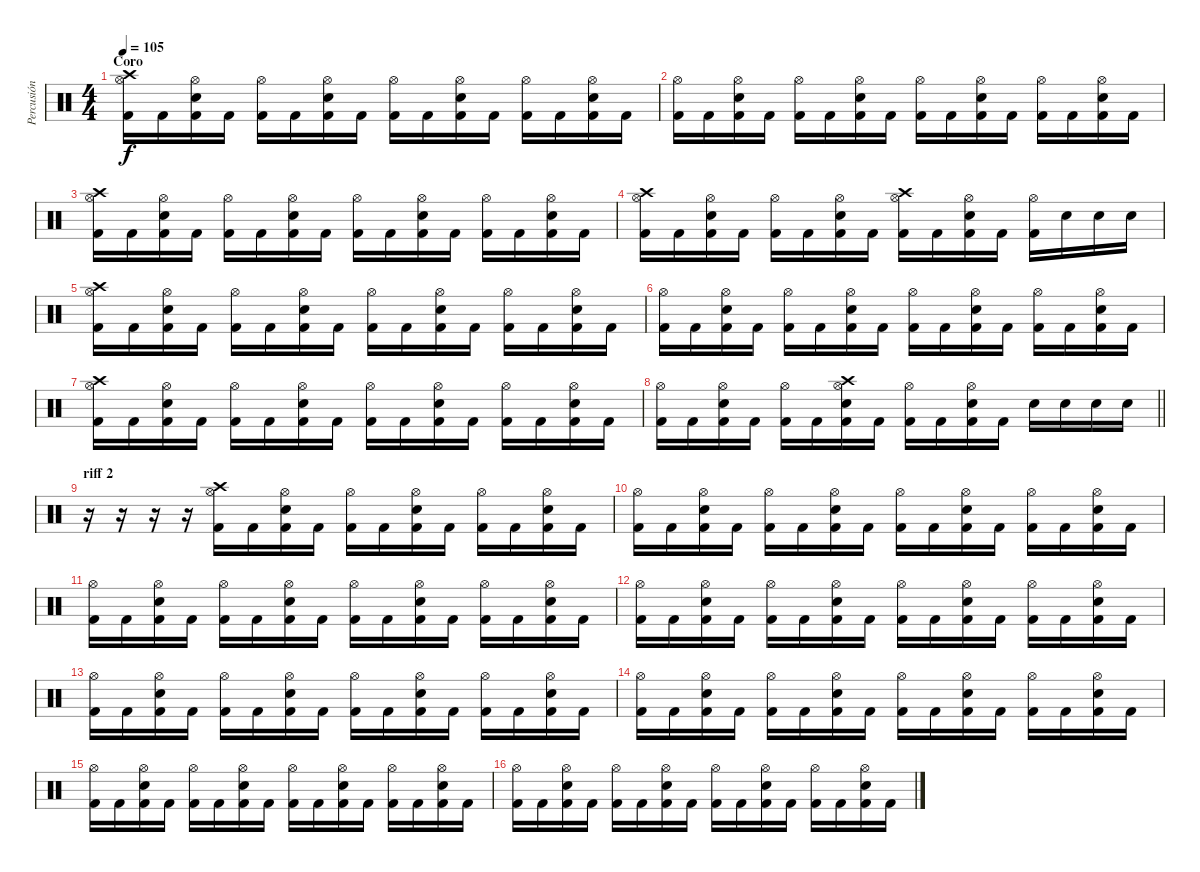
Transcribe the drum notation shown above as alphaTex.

\track ("Percusión" "Percusión") {instrument percussion}
\staff {score}
\articulation defaults
\ts (4 4)
\section ("" "Coro")
\tempo 105
\clef neutral
\ks c
("Crash high (hit)" "Hi-Hat (open)" "Kick (hit) 2").16{dy f} "Kick (hit) 2".16 ("Hi-Hat (open)" "Snare (hit) 2" "Kick (hit) 2").16 "Kick (hit) 2".16 ("Hi-Hat (open)" "Kick (hit) 2").16 "Kick (hit) 2".16 ("Hi-Hat (open)" "Snare (hit) 2" "Kick (hit) 2").16 "Kick (hit) 2".16 ("Hi-Hat (open)" "Kick (hit) 2").16 "Kick (hit) 2".16 ("Hi-Hat (open)" "Snare (hit) 2" "Kick (hit) 2").16 "Kick (hit) 2".16 ("Hi-Hat (open)" "Kick (hit) 2").16 "Kick (hit) 2".16 ("Hi-Hat (open)" "Snare (hit) 2" "Kick (hit) 2").16 "Kick (hit) 2".16 |
("Hi-Hat (open)" "Kick (hit) 2").16 "Kick (hit) 2".16 ("Hi-Hat (open)" "Snare (hit) 2" "Kick (hit) 2").16 "Kick (hit) 2".16 ("Hi-Hat (open)" "Kick (hit) 2").16 "Kick (hit) 2".16 ("Hi-Hat (open)" "Snare (hit) 2" "Kick (hit) 2").16 "Kick (hit) 2".16 ("Hi-Hat (open)" "Kick (hit) 2").16 "Kick (hit) 2".16 ("Hi-Hat (open)" "Snare (hit) 2" "Kick (hit) 2").16 "Kick (hit) 2".16 ("Hi-Hat (open)" "Kick (hit) 2").16 "Kick (hit) 2".16 ("Hi-Hat (open)" "Snare (hit) 2" "Kick (hit) 2").16 "Kick (hit) 2".16 |
("Crash high (hit)" "Hi-Hat (open)" "Kick (hit) 2").16 "Kick (hit) 2".16 ("Hi-Hat (open)" "Snare (hit) 2" "Kick (hit) 2").16 "Kick (hit) 2".16 ("Hi-Hat (open)" "Kick (hit) 2").16 "Kick (hit) 2".16 ("Hi-Hat (open)" "Snare (hit) 2" "Kick (hit) 2").16 "Kick (hit) 2".16 ("Hi-Hat (open)" "Kick (hit) 2").16 "Kick (hit) 2".16 ("Hi-Hat (open)" "Snare (hit) 2" "Kick (hit) 2").16 "Kick (hit) 2".16 ("Hi-Hat (open)" "Kick (hit) 2").16 "Kick (hit) 2".16 ("Hi-Hat (open)" "Snare (hit) 2" "Kick (hit) 2").16 "Kick (hit) 2".16 |
("Crash high (hit)" "Hi-Hat (open)" "Kick (hit) 2").16 "Kick (hit) 2".16 ("Hi-Hat (open)" "Snare (hit) 2" "Kick (hit) 2").16 "Kick (hit) 2".16 ("Hi-Hat (open)" "Kick (hit) 2").16 "Kick (hit) 2".16 ("Hi-Hat (open)" "Snare (hit) 2" "Kick (hit) 2").16 "Kick (hit) 2".16 ("Crash high (hit)" "Hi-Hat (open)" "Kick (hit) 2").16 "Kick (hit) 2".16 ("Hi-Hat (open)" "Snare (hit) 2" "Kick (hit) 2").16 "Kick (hit) 2".16 ("Hi-Hat (open)" "Kick (hit) 2").16 "Snare (hit) 2".16 "Snare (hit) 2".16 "Snare (hit) 2".16 |
("Crash high (hit)" "Hi-Hat (open)" "Kick (hit) 2").16 "Kick (hit) 2".16 ("Hi-Hat (open)" "Snare (hit) 2" "Kick (hit) 2").16 "Kick (hit) 2".16 ("Hi-Hat (open)" "Kick (hit) 2").16 "Kick (hit) 2".16 ("Hi-Hat (open)" "Snare (hit) 2" "Kick (hit) 2").16 "Kick (hit) 2".16 ("Hi-Hat (open)" "Kick (hit) 2").16 "Kick (hit) 2".16 ("Hi-Hat (open)" "Snare (hit) 2" "Kick (hit) 2").16 "Kick (hit) 2".16 ("Hi-Hat (open)" "Kick (hit) 2").16 "Kick (hit) 2".16 ("Hi-Hat (open)" "Snare (hit) 2" "Kick (hit) 2").16 "Kick (hit) 2".16 |
("Hi-Hat (open)" "Kick (hit) 2").16 "Kick (hit) 2".16 ("Hi-Hat (open)" "Snare (hit) 2" "Kick (hit) 2").16 "Kick (hit) 2".16 ("Hi-Hat (open)" "Kick (hit) 2").16 "Kick (hit) 2".16 ("Hi-Hat (open)" "Snare (hit) 2" "Kick (hit) 2").16 "Kick (hit) 2".16 ("Hi-Hat (open)" "Kick (hit) 2").16 "Kick (hit) 2".16 ("Hi-Hat (open)" "Snare (hit) 2" "Kick (hit) 2").16 "Kick (hit) 2".16 ("Hi-Hat (open)" "Kick (hit) 2").16 "Kick (hit) 2".16 ("Hi-Hat (open)" "Snare (hit) 2" "Kick (hit) 2").16 "Kick (hit) 2".16 |
("Crash high (hit)" "Hi-Hat (open)" "Kick (hit) 2").16 "Kick (hit) 2".16 ("Hi-Hat (open)" "Snare (hit) 2" "Kick (hit) 2").16 "Kick (hit) 2".16 ("Hi-Hat (open)" "Kick (hit) 2").16 "Kick (hit) 2".16 ("Hi-Hat (open)" "Snare (hit) 2" "Kick (hit) 2").16 "Kick (hit) 2".16 ("Hi-Hat (open)" "Kick (hit) 2").16 "Kick (hit) 2".16 ("Hi-Hat (open)" "Snare (hit) 2" "Kick (hit) 2").16 "Kick (hit) 2".16 ("Hi-Hat (open)" "Kick (hit) 2").16 "Kick (hit) 2".16 ("Hi-Hat (open)" "Snare (hit) 2" "Kick (hit) 2").16 "Kick (hit) 2".16 |
\barLineRight lightlight
("Hi-Hat (open)" "Kick (hit) 2").16 "Kick (hit) 2".16 ("Hi-Hat (open)" "Snare (hit) 2" "Kick (hit) 2").16 "Kick (hit) 2".16 ("Hi-Hat (open)" "Kick (hit) 2").16 "Kick (hit) 2".16 ("Crash high (hit)" "Hi-Hat (open)" "Snare (hit) 2" "Kick (hit) 2").16 "Kick (hit) 2".16 ("Hi-Hat (open)" "Kick (hit) 2").16 "Kick (hit) 2".16 ("Hi-Hat (open)" "Snare (hit) 2" "Kick (hit) 2").16 "Kick (hit) 2".16 "Snare (hit) 2".16 "Snare (hit) 2".16 "Snare (hit) 2".16 "Snare (hit) 2".16 |
\section ("" "riff 2")
r.16 r.16 r.16 r.16 ("Crash high (hit)" "Hi-Hat (open)" "Kick (hit) 2").16 "Kick (hit) 2".16 ("Hi-Hat (open)" "Snare (hit) 2" "Kick (hit) 2").16 "Kick (hit) 2".16 ("Hi-Hat (open)" "Kick (hit) 2").16 "Kick (hit) 2".16 ("Hi-Hat (open)" "Snare (hit) 2" "Kick (hit) 2").16 "Kick (hit) 2".16 ("Hi-Hat (open)" "Kick (hit) 2").16 "Kick (hit) 2".16 ("Hi-Hat (open)" "Snare (hit) 2" "Kick (hit) 2").16 "Kick (hit) 2".16 |
("Hi-Hat (open)" "Kick (hit) 2").16 "Kick (hit) 2".16 ("Hi-Hat (open)" "Snare (hit) 2" "Kick (hit) 2").16 "Kick (hit) 2".16 ("Hi-Hat (open)" "Kick (hit) 2").16 "Kick (hit) 2".16 ("Hi-Hat (open)" "Snare (hit) 2" "Kick (hit) 2").16 "Kick (hit) 2".16 ("Hi-Hat (open)" "Kick (hit) 2").16 "Kick (hit) 2".16 ("Hi-Hat (open)" "Snare (hit) 2" "Kick (hit) 2").16 "Kick (hit) 2".16 ("Hi-Hat (open)" "Kick (hit) 2").16 "Kick (hit) 2".16 ("Hi-Hat (open)" "Snare (hit) 2" "Kick (hit) 2").16 "Kick (hit) 2".16 |
("Hi-Hat (open)" "Kick (hit) 2").16 "Kick (hit) 2".16 ("Hi-Hat (open)" "Snare (hit) 2" "Kick (hit) 2").16 "Kick (hit) 2".16 ("Hi-Hat (open)" "Kick (hit) 2").16 "Kick (hit) 2".16 ("Hi-Hat (open)" "Snare (hit) 2" "Kick (hit) 2").16 "Kick (hit) 2".16 ("Hi-Hat (open)" "Kick (hit) 2").16 "Kick (hit) 2".16 ("Hi-Hat (open)" "Snare (hit) 2" "Kick (hit) 2").16 "Kick (hit) 2".16 ("Hi-Hat (open)" "Kick (hit) 2").16 "Kick (hit) 2".16 ("Hi-Hat (open)" "Snare (hit) 2" "Kick (hit) 2").16 "Kick (hit) 2".16 |
("Hi-Hat (open)" "Kick (hit) 2").16 "Kick (hit) 2".16 ("Hi-Hat (open)" "Snare (hit) 2" "Kick (hit) 2").16 "Kick (hit) 2".16 ("Hi-Hat (open)" "Kick (hit) 2").16 "Kick (hit) 2".16 ("Hi-Hat (open)" "Snare (hit) 2" "Kick (hit) 2").16 "Kick (hit) 2".16 ("Hi-Hat (open)" "Kick (hit) 2").16 "Kick (hit) 2".16 ("Hi-Hat (open)" "Snare (hit) 2" "Kick (hit) 2").16 "Kick (hit) 2".16 ("Hi-Hat (open)" "Kick (hit) 2").16 "Kick (hit) 2".16 ("Hi-Hat (open)" "Snare (hit) 2" "Kick (hit) 2").16 "Kick (hit) 2".16 |
("Hi-Hat (open)" "Kick (hit) 2").16 "Kick (hit) 2".16 ("Hi-Hat (open)" "Snare (hit) 2" "Kick (hit) 2").16 "Kick (hit) 2".16 ("Hi-Hat (open)" "Kick (hit) 2").16 "Kick (hit) 2".16 ("Hi-Hat (open)" "Snare (hit) 2" "Kick (hit) 2").16 "Kick (hit) 2".16 ("Hi-Hat (open)" "Kick (hit) 2").16 "Kick (hit) 2".16 ("Hi-Hat (open)" "Snare (hit) 2" "Kick (hit) 2").16 "Kick (hit) 2".16 ("Hi-Hat (open)" "Kick (hit) 2").16 "Kick (hit) 2".16 ("Hi-Hat (open)" "Snare (hit) 2" "Kick (hit) 2").16 "Kick (hit) 2".16 |
("Hi-Hat (open)" "Kick (hit) 2").16 "Kick (hit) 2".16 ("Hi-Hat (open)" "Snare (hit) 2" "Kick (hit) 2").16 "Kick (hit) 2".16 ("Hi-Hat (open)" "Kick (hit) 2").16 "Kick (hit) 2".16 ("Hi-Hat (open)" "Snare (hit) 2" "Kick (hit) 2").16 "Kick (hit) 2".16 ("Hi-Hat (open)" "Kick (hit) 2").16 "Kick (hit) 2".16 ("Hi-Hat (open)" "Snare (hit) 2" "Kick (hit) 2").16 "Kick (hit) 2".16 ("Hi-Hat (open)" "Kick (hit) 2").16 "Kick (hit) 2".16 ("Hi-Hat (open)" "Snare (hit) 2" "Kick (hit) 2").16 "Kick (hit) 2".16 |
("Hi-Hat (open)" "Kick (hit) 2").16 "Kick (hit) 2".16 ("Hi-Hat (open)" "Snare (hit) 2" "Kick (hit) 2").16 "Kick (hit) 2".16 ("Hi-Hat (open)" "Kick (hit) 2").16 "Kick (hit) 2".16 ("Hi-Hat (open)" "Snare (hit) 2" "Kick (hit) 2").16 "Kick (hit) 2".16 ("Hi-Hat (open)" "Kick (hit) 2").16 "Kick (hit) 2".16 ("Hi-Hat (open)" "Snare (hit) 2" "Kick (hit) 2").16 "Kick (hit) 2".16 ("Hi-Hat (open)" "Kick (hit) 2").16 "Kick (hit) 2".16 ("Hi-Hat (open)" "Snare (hit) 2" "Kick (hit) 2").16 "Kick (hit) 2".16 |
("Hi-Hat (open)" "Kick (hit) 2").16 "Kick (hit) 2".16 ("Hi-Hat (open)" "Snare (hit) 2" "Kick (hit) 2").16 "Kick (hit) 2".16 ("Hi-Hat (open)" "Kick (hit) 2").16 "Kick (hit) 2".16 ("Hi-Hat (open)" "Snare (hit) 2" "Kick (hit) 2").16 "Kick (hit) 2".16 ("Hi-Hat (open)" "Kick (hit) 2").16 "Kick (hit) 2".16 ("Hi-Hat (open)" "Snare (hit) 2" "Kick (hit) 2").16 "Kick (hit) 2".16 ("Hi-Hat (open)" "Kick (hit) 2").16 "Kick (hit) 2".16 ("Hi-Hat (open)" "Snare (hit) 2" "Kick (hit) 2").16 "Kick (hit) 2".16
